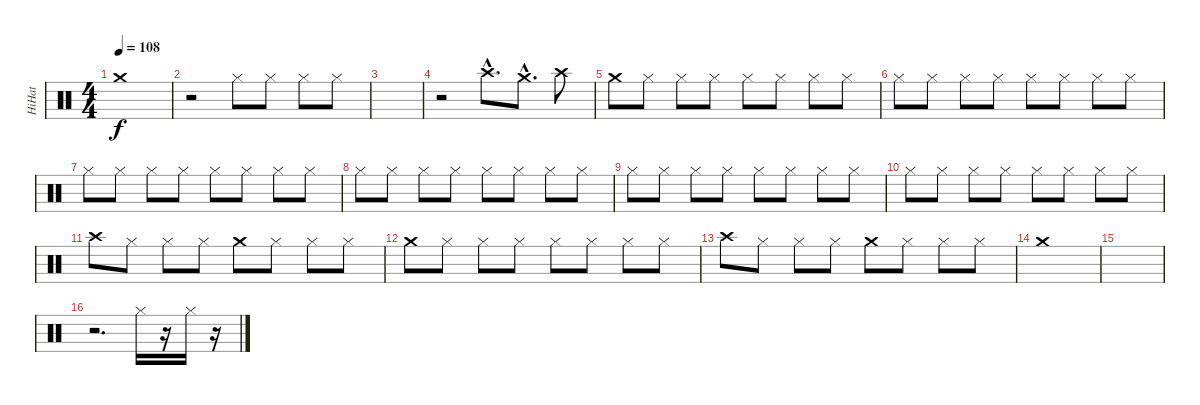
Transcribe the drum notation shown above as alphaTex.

\track ("HiHat" "HiHat") {instrument percussion}
\staff {score}
\articulation defaults
\ts (4 4)
\tempo 108
\clef neutral
\ks c "Crash medium (hit)".1{dy f}
|
r.2 "Hi-Hat (closed)".8 "Hi-Hat (closed)".8 "Hi-Hat (closed)".8 "Hi-Hat (closed)".8 |
|
r.2 "Crash high (hit)"{hac}.8{d} "Crash medium (hit)"{hac}.8{d} "Crash high (hit)".8 |
"Crash medium (hit)".8 "Hi-Hat (closed)".8 "Hi-Hat (closed)".8 "Hi-Hat (closed)".8 "Hi-Hat (closed)".8 "Hi-Hat (closed)".8 "Hi-Hat (closed)".8 "Hi-Hat (closed)".8 |
"Hi-Hat (closed)".8 "Hi-Hat (closed)".8 "Hi-Hat (closed)".8 "Hi-Hat (closed)".8 "Hi-Hat (closed)".8 "Hi-Hat (closed)".8 "Hi-Hat (closed)".8 "Hi-Hat (closed)".8 |
"Hi-Hat (closed)".8 "Hi-Hat (closed)".8 "Hi-Hat (closed)".8 "Hi-Hat (closed)".8 "Hi-Hat (closed)".8 "Hi-Hat (closed)".8 "Hi-Hat (closed)".8 "Hi-Hat (closed)".8 |
"Hi-Hat (closed)".8 "Hi-Hat (closed)".8 "Hi-Hat (closed)".8 "Hi-Hat (closed)".8 "Hi-Hat (closed)".8 "Hi-Hat (closed)".8 "Hi-Hat (closed)".8 "Hi-Hat (closed)".8 |
"Hi-Hat (closed)".8 "Hi-Hat (closed)".8 "Hi-Hat (closed)".8 "Hi-Hat (closed)".8 "Hi-Hat (closed)".8 "Hi-Hat (closed)".8 "Hi-Hat (closed)".8 "Hi-Hat (closed)".8 |
"Hi-Hat (closed)".8 "Hi-Hat (closed)".8 "Hi-Hat (closed)".8 "Hi-Hat (closed)".8 "Hi-Hat (closed)".8 "Hi-Hat (closed)".8 "Hi-Hat (closed)".8 "Hi-Hat (closed)".8 |
"Crash high (hit)".8 "Hi-Hat (closed)".8 "Hi-Hat (closed)".8 "Hi-Hat (closed)".8 "Crash medium (hit)".8 "Hi-Hat (closed)".8 "Hi-Hat (closed)".8 "Hi-Hat (closed)".8 |
"Crash medium (hit)".8 "Hi-Hat (closed)".8 "Hi-Hat (closed)".8 "Hi-Hat (closed)".8 "Hi-Hat (closed)".8 "Hi-Hat (closed)".8 "Hi-Hat (closed)".8 "Hi-Hat (closed)".8 |
"Crash high (hit)".8 "Hi-Hat (closed)".8 "Hi-Hat (closed)".8 "Hi-Hat (closed)".8 "Crash medium (hit)".8 "Hi-Hat (closed)".8 "Hi-Hat (closed)".8 "Hi-Hat (closed)".8 |
"Crash medium (hit)".1 |
|
r.2{d} "Hi-Hat (closed)".16 r.16 "Hi-Hat (closed)".16 r.16
